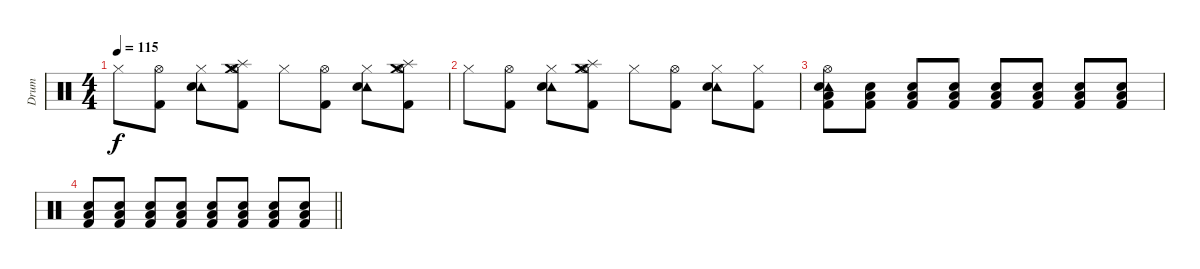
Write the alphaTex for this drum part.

\track ("Drum" "Drum") {instrument percussion}
\staff {score}
\articulation defaults
\ts (4 4)
\tempo 115
\clef neutral
\ks c "Hi-Hat (closed)".8{dy f}
("Hi-Hat (open)" "Kick (hit) 2").8 ("Hi-Hat (closed)" "Tambourine (hit)" "Electric Snare (hit)").8 ("Hi-Hat (open)" "Crash medium (hit)" "Splash (hit)" "Kick (hit) 2").8 "Hi-Hat (closed)".8 ("Hi-Hat (open)" "Kick (hit) 2").8 ("Hi-Hat (closed)" "Tambourine (hit)" "Electric Snare (hit)").8 ("Hi-Hat (open)" "Crash medium (hit)" "Splash (hit)" "Kick (hit) 2").8 |
"Hi-Hat (closed)".8 ("Hi-Hat (open)" "Kick (hit) 2").8 ("Hi-Hat (closed)" "Tambourine (hit)" "Electric Snare (hit)").8 ("Hi-Hat (open)" "Crash medium (hit)" "Splash (hit)" "Kick (hit) 2").8 "Hi-Hat (closed)".8 ("Hi-Hat (open)" "Kick (hit) 2").8 ("Hi-Hat (closed)" "Tambourine (hit)" "Electric Snare (hit)").8 ("Hi-Hat (closed)" "Kick (hit) 2").8 |
("Tambourine (hit)" "Hi-Hat (open)" "Low Tom (hit)" "Electric Snare (hit)" "Kick (hit) 2").8 ("Low Tom (hit)" "Electric Snare (hit)" "Kick (hit) 2").8 ("Low Tom (hit)" "Electric Snare (hit)" "Kick (hit) 2").8 ("Low Tom (hit)" "Electric Snare (hit)" "Kick (hit) 2").8 ("Low Tom (hit)" "Electric Snare (hit)" "Kick (hit) 2").8 ("Low Tom (hit)" "Electric Snare (hit)" "Kick (hit) 2").8 ("Low Tom (hit)" "Electric Snare (hit)" "Kick (hit) 2").8 ("Low Tom (hit)" "Electric Snare (hit)" "Kick (hit) 2").8 |
\barLineRight lightlight
("Low Tom (hit)" "Electric Snare (hit)" "Kick (hit) 2").8 ("Low Tom (hit)" "Electric Snare (hit)" "Kick (hit) 2").8 ("Low Tom (hit)" "Electric Snare (hit)" "Kick (hit) 2").8 ("Low Tom (hit)" "Electric Snare (hit)" "Kick (hit) 2").8 ("Low Tom (hit)" "Electric Snare (hit)" "Kick (hit) 2").8 ("Low Tom (hit)" "Electric Snare (hit)" "Kick (hit) 2").8 ("Low Tom (hit)" "Electric Snare (hit)" "Kick (hit) 2").8 ("Low Tom (hit)" "Electric Snare (hit)" "Kick (hit) 2").8
